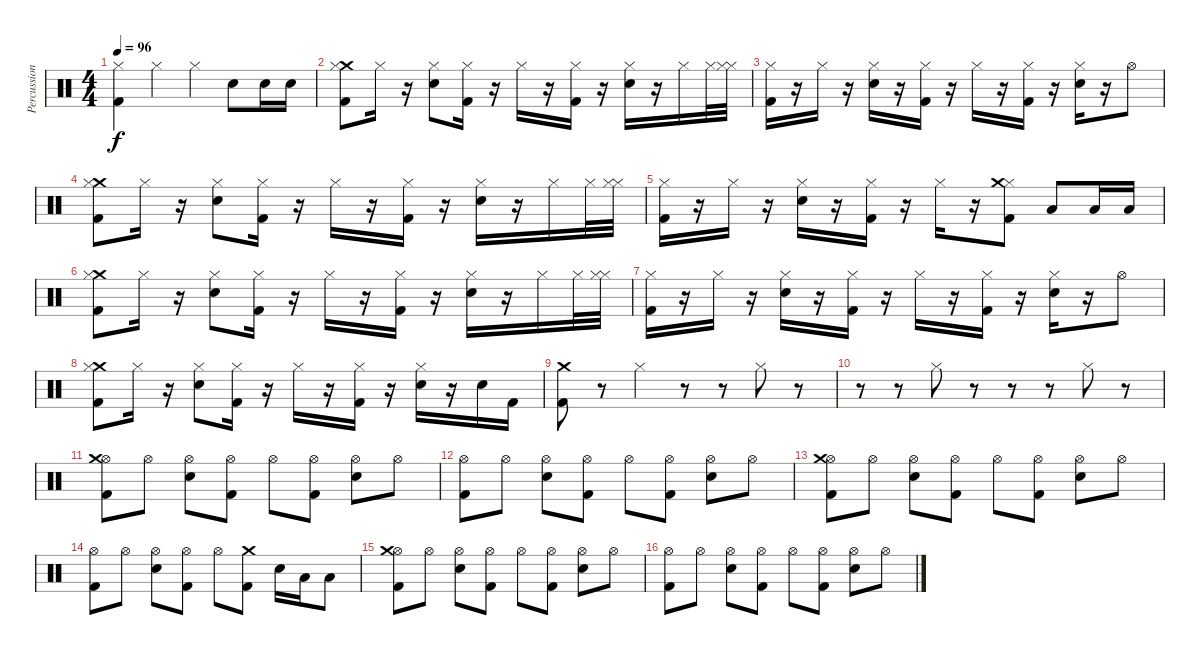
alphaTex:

\track ("Percussions" "Percussion") {instrument percussion}
\staff {score}
\articulation defaults
\ts (4 4)
\tempo 96
\clef neutral
\ks c
("Hi-Hat (closed)" "Kick (hit) 2").4{dy f} "Hi-Hat (closed)".4 "Hi-Hat (closed)".4 "Snare (hit) 2".8 "Snare (hit) 2".16 "Snare (hit) 2".16 |
("Crash medium (hit)" "Kick (hit) 2" "Hi-Hat (closed)").8 "Hi-Hat (closed)".16 r.16 ("Snare (hit) 2" "Hi-Hat (closed)").8 ("Kick (hit) 2" "Hi-Hat (closed)").16 r.16 "Hi-Hat (closed)".16 r.16 ("Kick (hit) 2" "Hi-Hat (closed)").16 r.16 ("Snare (hit) 2" "Hi-Hat (closed)").16 r.16 "Hi-Hat (closed)".16 "Hi-Hat (closed)".32 ("Hi-Hat (closed)" "Hi-Hat (closed)").32 |
("Hi-Hat (closed)" "Kick (hit) 2").16 r.16 "Hi-Hat (closed)".16 r.16 ("Hi-Hat (closed)" "Snare (hit) 2").16 r.16 ("Hi-Hat (closed)" "Kick (hit) 2").16 r.16 "Hi-Hat (closed)".16 r.16 ("Hi-Hat (closed)" "Kick (hit) 2").16 r.16 ("Hi-Hat (closed)" "Snare (hit) 2").16 r.16 "Hi-Hat (open)".8 |
("Crash medium (hit)" "Kick (hit) 2" "Hi-Hat (closed)").8 "Hi-Hat (closed)".16 r.16 ("Snare (hit) 2" "Hi-Hat (closed)").8 ("Kick (hit) 2" "Hi-Hat (closed)").16 r.16 "Hi-Hat (closed)".16 r.16 ("Kick (hit) 2" "Hi-Hat (closed)").16 r.16 ("Snare (hit) 2" "Hi-Hat (closed)").16 r.16 "Hi-Hat (closed)".16 "Hi-Hat (closed)".32 ("Hi-Hat (closed)" "Hi-Hat (closed)").32 |
("Hi-Hat (closed)" "Kick (hit) 2").16 r.16 "Hi-Hat (closed)".16 r.16 ("Hi-Hat (closed)" "Snare (hit) 2").16 r.16 ("Hi-Hat (closed)" "Kick (hit) 2").16 r.16 "Hi-Hat (closed)".16 r.16 ("Hi-Hat (closed)" "Kick (hit) 2" "Crash medium (hit)").8 "Low Tom (hit)".8 "Low Tom (hit)".16 "Low Floor Tom (hit)".16 |
("Crash medium (hit)" "Kick (hit) 2" "Hi-Hat (closed)").8 "Hi-Hat (closed)".16 r.16 ("Snare (hit) 2" "Hi-Hat (closed)").8 ("Kick (hit) 2" "Hi-Hat (closed)").16 r.16 "Hi-Hat (closed)".16 r.16 ("Kick (hit) 2" "Hi-Hat (closed)").16 r.16 ("Snare (hit) 2" "Hi-Hat (closed)").16 r.16 "Hi-Hat (closed)".16 "Hi-Hat (closed)".32 ("Hi-Hat (closed)" "Hi-Hat (closed)").32 |
("Hi-Hat (closed)" "Kick (hit) 2").16 r.16 "Hi-Hat (closed)".16 r.16 ("Hi-Hat (closed)" "Snare (hit) 2").16 r.16 ("Hi-Hat (closed)" "Kick (hit) 2").16 r.16 "Hi-Hat (closed)".16 r.16 ("Hi-Hat (closed)" "Kick (hit) 2").16 r.16 ("Hi-Hat (closed)" "Snare (hit) 2").16 r.16 "Hi-Hat (open)".8 |
("Crash medium (hit)" "Kick (hit) 2" "Hi-Hat (closed)").8 "Hi-Hat (closed)".16 r.16 ("Snare (hit) 2" "Hi-Hat (closed)").8 ("Kick (hit) 2" "Hi-Hat (closed)").16 r.16 "Hi-Hat (closed)".16 r.16 ("Kick (hit) 2" "Hi-Hat (closed)").16 r.16 ("Snare (hit) 2" "Hi-Hat (closed)").16 r.16 "Snare (hit) 2".16 "Kick (hit) 2".16 |
("Crash medium (hit)" "Kick (hit) 2").8 r.8 "Hi-Hat (closed)".4 r.8 r.8 "Hi-Hat (closed)".8 r.8 |
r.8 r.8 "Hi-Hat (closed)".8 r.8 r.8 r.8 "Hi-Hat (closed)".8 r.8 |
("Kick (hit) 2" "Hi-Hat (open)" "Crash medium (hit)").8 "Hi-Hat (open)".8 ("Snare (hit) 2" "Hi-Hat (open)").8 ("Kick (hit) 2" "Hi-Hat (open)").8 "Hi-Hat (open)".8 ("Kick (hit) 2" "Hi-Hat (open)").8 ("Snare (hit) 2" "Hi-Hat (open)").8 "Hi-Hat (open)".8 |
("Kick (hit) 2" "Hi-Hat (open)").8 "Hi-Hat (open)".8 ("Snare (hit) 2" "Hi-Hat (open)").8 ("Kick (hit) 2" "Hi-Hat (open)").8 "Hi-Hat (open)".8 ("Kick (hit) 2" "Hi-Hat (open)").8 ("Snare (hit) 2" "Hi-Hat (open)").8 "Hi-Hat (open)".8 |
("Kick (hit) 2" "Hi-Hat (open)" "Crash medium (hit)").8 "Hi-Hat (open)".8 ("Snare (hit) 2" "Hi-Hat (open)").8 ("Kick (hit) 2" "Hi-Hat (open)").8 "Hi-Hat (open)".8 ("Kick (hit) 2" "Hi-Hat (open)").8 ("Snare (hit) 2" "Hi-Hat (open)").8 "Hi-Hat (open)".8 |
("Kick (hit) 2" "Hi-Hat (open)").8 "Hi-Hat (open)".8 ("Snare (hit) 2" "Hi-Hat (open)").8 ("Kick (hit) 2" "Hi-Hat (open)").8 "Hi-Hat (open)".8 ("Kick (hit) 2" "Crash medium (hit)").8 "Snare (hit) 2".16 "Low Tom (hit)".16 "Low Floor Tom (hit)".8 |
("Kick (hit) 2" "Hi-Hat (open)" "Crash medium (hit)").8 "Hi-Hat (open)".8 ("Snare (hit) 2" "Hi-Hat (open)").8 ("Kick (hit) 2" "Hi-Hat (open)").8 "Hi-Hat (open)".8 ("Kick (hit) 2" "Hi-Hat (open)").8 ("Snare (hit) 2" "Hi-Hat (open)").8 "Hi-Hat (open)".8 |
("Kick (hit) 2" "Hi-Hat (open)").8 "Hi-Hat (open)".8 ("Snare (hit) 2" "Hi-Hat (open)").8 ("Kick (hit) 2" "Hi-Hat (open)").8 "Hi-Hat (open)".8 ("Kick (hit) 2" "Hi-Hat (open)").8 ("Snare (hit) 2" "Hi-Hat (open)").8 "Hi-Hat (open)".8
